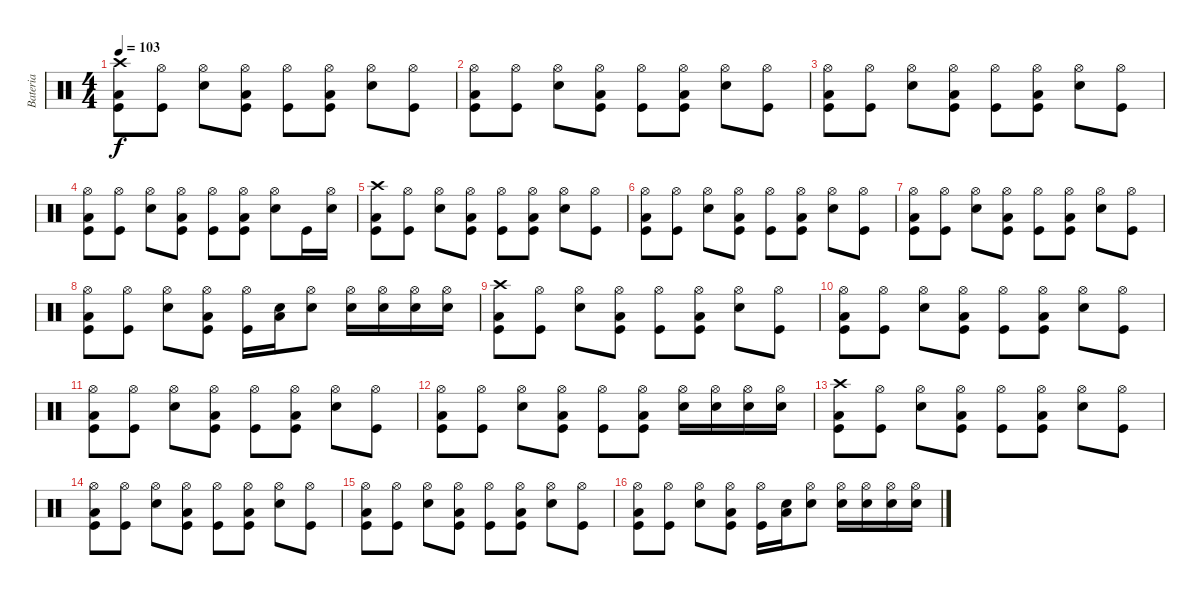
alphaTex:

\track ("Bateria" "Bateria") {instrument percussion}
\staff {score}
\articulation defaults
\ts (4 4)
\tempo 103
\clef neutral
\ks c
("Crash high (hit)" "Kick (hit)" "Low Tom (hit)").8{dy f} ("Hi-Hat (open)" "Kick (hit)").8 ("Hi-Hat (open)" "Snare (hit) 2").8 ("Hi-Hat (open)" "Kick (hit)" "Low Tom (hit)").8 ("Hi-Hat (open)" "Kick (hit)").8 ("Hi-Hat (open)" "Kick (hit)" "Low Tom (hit)").8 ("Hi-Hat (open)" "Snare (hit) 2").8 ("Hi-Hat (open)" "Kick (hit)").8 |
("Hi-Hat (open)" "Kick (hit)" "Low Tom (hit)").8 ("Hi-Hat (open)" "Kick (hit)").8 ("Hi-Hat (open)" "Snare (hit) 2").8 ("Hi-Hat (open)" "Kick (hit)" "Low Tom (hit)").8 ("Hi-Hat (open)" "Kick (hit)").8 ("Hi-Hat (open)" "Kick (hit)" "Low Tom (hit)").8 ("Hi-Hat (open)" "Snare (hit) 2").8 ("Hi-Hat (open)" "Kick (hit)").8 |
("Hi-Hat (open)" "Kick (hit)" "Low Tom (hit)").8 ("Hi-Hat (open)" "Kick (hit)").8 ("Hi-Hat (open)" "Snare (hit) 2").8 ("Hi-Hat (open)" "Kick (hit)" "Low Tom (hit)").8 ("Hi-Hat (open)" "Kick (hit)").8 ("Hi-Hat (open)" "Kick (hit)" "Low Tom (hit)").8 ("Hi-Hat (open)" "Snare (hit) 2").8 ("Hi-Hat (open)" "Kick (hit)").8 |
("Hi-Hat (open)" "Kick (hit)" "Low Tom (hit)").8 ("Hi-Hat (open)" "Kick (hit)").8 ("Hi-Hat (open)" "Snare (hit) 2").8 ("Hi-Hat (open)" "Kick (hit)" "Low Tom (hit)").8 ("Hi-Hat (open)" "Kick (hit)").8 ("Hi-Hat (open)" "Kick (hit)" "Low Tom (hit)").8 ("Hi-Hat (open)" "Snare (hit) 2").8 "Kick (hit)".16 ("Hi-Hat (open)" "Snare (hit) 2").16 |
("Crash high (hit)" "Kick (hit)" "Low Tom (hit)").8 ("Hi-Hat (open)" "Kick (hit)").8 ("Hi-Hat (open)" "Snare (hit) 2").8 ("Hi-Hat (open)" "Kick (hit)" "Low Tom (hit)").8 ("Hi-Hat (open)" "Kick (hit)").8 ("Hi-Hat (open)" "Kick (hit)" "Low Tom (hit)").8 ("Hi-Hat (open)" "Snare (hit) 2").8 ("Hi-Hat (open)" "Kick (hit)").8 |
("Hi-Hat (open)" "Kick (hit)" "Low Tom (hit)").8 ("Hi-Hat (open)" "Kick (hit)").8 ("Hi-Hat (open)" "Snare (hit) 2").8 ("Hi-Hat (open)" "Kick (hit)" "Low Tom (hit)").8 ("Hi-Hat (open)" "Kick (hit)").8 ("Hi-Hat (open)" "Kick (hit)" "Low Tom (hit)").8 ("Hi-Hat (open)" "Snare (hit) 2").8 ("Hi-Hat (open)" "Kick (hit)").8 |
("Hi-Hat (open)" "Kick (hit)" "Low Tom (hit)").8 ("Hi-Hat (open)" "Kick (hit)").8 ("Hi-Hat (open)" "Snare (hit) 2").8 ("Hi-Hat (open)" "Kick (hit)" "Low Tom (hit)").8 ("Hi-Hat (open)" "Kick (hit)").8 ("Hi-Hat (open)" "Kick (hit)" "Low Tom (hit)").8 ("Hi-Hat (open)" "Snare (hit) 2").8 ("Hi-Hat (open)" "Kick (hit)").8 |
("Hi-Hat (open)" "Kick (hit)" "Low Tom (hit)").8 ("Hi-Hat (open)" "Kick (hit)").8 ("Hi-Hat (open)" "Snare (hit) 2").8 ("Hi-Hat (open)" "Kick (hit)" "Low Tom (hit)").8 ("Hi-Hat (open)" "Kick (hit)").16 ("Snare (hit) 2" "Low Tom (hit)").16 ("Hi-Hat (open)" "Snare (hit) 2").8 ("Hi-Hat (open)" "Snare (hit) 2").16 ("Hi-Hat (open)" "Snare (hit) 2").16 ("Hi-Hat (open)" "Snare (hit) 2").16 ("Hi-Hat (open)" "Snare (hit) 2").16 |
("Crash high (hit)" "Kick (hit)" "Low Tom (hit)").8 ("Hi-Hat (open)" "Kick (hit)").8 ("Hi-Hat (open)" "Snare (hit) 2").8 ("Hi-Hat (open)" "Kick (hit)" "Low Tom (hit)").8 ("Hi-Hat (open)" "Kick (hit)").8 ("Hi-Hat (open)" "Kick (hit)" "Low Tom (hit)").8 ("Hi-Hat (open)" "Snare (hit) 2").8 ("Hi-Hat (open)" "Kick (hit)").8 |
("Hi-Hat (open)" "Kick (hit)" "Low Tom (hit)").8 ("Hi-Hat (open)" "Kick (hit)").8 ("Hi-Hat (open)" "Snare (hit) 2").8 ("Hi-Hat (open)" "Kick (hit)" "Low Tom (hit)").8 ("Hi-Hat (open)" "Kick (hit)").8 ("Hi-Hat (open)" "Kick (hit)" "Low Tom (hit)").8 ("Hi-Hat (open)" "Snare (hit) 2").8 ("Hi-Hat (open)" "Kick (hit)").8 |
("Hi-Hat (open)" "Kick (hit)" "Low Tom (hit)").8 ("Hi-Hat (open)" "Kick (hit)").8 ("Hi-Hat (open)" "Snare (hit) 2").8 ("Hi-Hat (open)" "Kick (hit)" "Low Tom (hit)").8 ("Hi-Hat (open)" "Kick (hit)").8 ("Hi-Hat (open)" "Kick (hit)" "Low Tom (hit)").8 ("Hi-Hat (open)" "Snare (hit) 2").8 ("Hi-Hat (open)" "Kick (hit)").8 |
("Hi-Hat (open)" "Kick (hit)" "Low Tom (hit)").8 ("Hi-Hat (open)" "Kick (hit)").8 ("Hi-Hat (open)" "Snare (hit) 2").8 ("Hi-Hat (open)" "Kick (hit)" "Low Tom (hit)").8 ("Hi-Hat (open)" "Kick (hit)").8 ("Hi-Hat (open)" "Kick (hit)" "Low Tom (hit)").8 ("Hi-Hat (open)" "Snare (hit) 2").16 ("Hi-Hat (open)" "Snare (hit) 2").16 ("Hi-Hat (open)" "Snare (hit) 2").16 ("Hi-Hat (open)" "Snare (hit) 2").16 |
("Crash high (hit)" "Kick (hit)" "Low Tom (hit)").8 ("Hi-Hat (open)" "Kick (hit)").8 ("Hi-Hat (open)" "Snare (hit) 2").8 ("Hi-Hat (open)" "Kick (hit)" "Low Tom (hit)").8 ("Hi-Hat (open)" "Kick (hit)").8 ("Hi-Hat (open)" "Kick (hit)" "Low Tom (hit)").8 ("Hi-Hat (open)" "Snare (hit) 2").8 ("Hi-Hat (open)" "Kick (hit)").8 |
("Hi-Hat (open)" "Kick (hit)" "Low Tom (hit)").8 ("Hi-Hat (open)" "Kick (hit)").8 ("Hi-Hat (open)" "Snare (hit) 2").8 ("Hi-Hat (open)" "Kick (hit)" "Low Tom (hit)").8 ("Hi-Hat (open)" "Kick (hit)").8 ("Hi-Hat (open)" "Kick (hit)" "Low Tom (hit)").8 ("Hi-Hat (open)" "Snare (hit) 2").8 ("Hi-Hat (open)" "Kick (hit)").8 |
("Hi-Hat (open)" "Kick (hit)" "Low Tom (hit)").8 ("Hi-Hat (open)" "Kick (hit)").8 ("Hi-Hat (open)" "Snare (hit) 2").8 ("Hi-Hat (open)" "Kick (hit)" "Low Tom (hit)").8 ("Hi-Hat (open)" "Kick (hit)").8 ("Hi-Hat (open)" "Kick (hit)" "Low Tom (hit)").8 ("Hi-Hat (open)" "Snare (hit) 2").8 ("Hi-Hat (open)" "Kick (hit)").8 |
("Hi-Hat (open)" "Kick (hit)" "Low Tom (hit)").8 ("Hi-Hat (open)" "Kick (hit)").8 ("Hi-Hat (open)" "Snare (hit) 2").8 ("Hi-Hat (open)" "Kick (hit)" "Low Tom (hit)").8 ("Hi-Hat (open)" "Kick (hit)").16 ("Snare (hit) 2" "Low Tom (hit)").16 ("Hi-Hat (open)" "Snare (hit) 2").8 ("Hi-Hat (open)" "Snare (hit) 2").16 ("Hi-Hat (open)" "Snare (hit) 2").16 ("Hi-Hat (open)" "Snare (hit) 2").16 ("Hi-Hat (open)" "Snare (hit) 2").16
